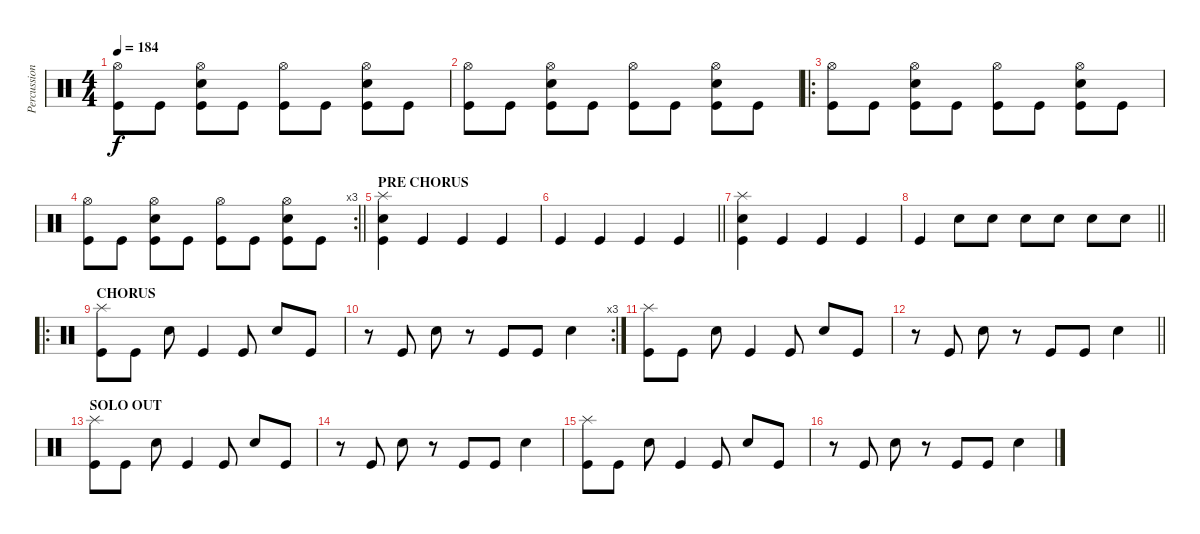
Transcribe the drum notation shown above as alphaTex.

\track ("Percussions" "Percussion") {instrument percussion}
\staff {score}
\articulation defaults
\ts (4 4)
\tempo 184
\clef neutral
\ks c
("Hi-Hat (open)" "Kick (hit)").8{dy f} "Kick (hit)".8 ("Hi-Hat (open)" "Electric Snare (hit)" "Kick (hit)").8 "Kick (hit)".8 ("Hi-Hat (open)" "Kick (hit)").8 "Kick (hit)".8 ("Hi-Hat (open)" "Electric Snare (hit)" "Kick (hit)").8 "Kick (hit)".8 |
("Hi-Hat (open)" "Kick (hit)").8 "Kick (hit)".8 ("Hi-Hat (open)" "Electric Snare (hit)" "Kick (hit)").8 "Kick (hit)".8 ("Hi-Hat (open)" "Kick (hit)").8 "Kick (hit)".8 ("Hi-Hat (open)" "Electric Snare (hit)" "Kick (hit)").8 "Kick (hit)".8 |
\ro
("Hi-Hat (open)" "Kick (hit)").8 "Kick (hit)".8 ("Hi-Hat (open)" "Electric Snare (hit)" "Kick (hit)").8 "Kick (hit)".8 ("Hi-Hat (open)" "Kick (hit)").8 "Kick (hit)".8 ("Hi-Hat (open)" "Electric Snare (hit)" "Kick (hit)").8 "Kick (hit)".8 |
\rc 3
\barLineRight lightlight
("Hi-Hat (open)" "Kick (hit)").8 "Kick (hit)".8 ("Hi-Hat (open)" "Electric Snare (hit)" "Kick (hit)").8 "Kick (hit)".8 ("Hi-Hat (open)" "Kick (hit)").8 "Kick (hit)".8 ("Hi-Hat (open)" "Electric Snare (hit)" "Kick (hit)").8 "Kick (hit)".8 |
\section ("" "PRE CHORUS")
("Electric Snare (hit)" "Splash (hit)" "Kick (hit)").4 "Kick (hit)".4 "Kick (hit)".4 "Kick (hit)".4 |
\barLineRight lightlight "Kick (hit)".4 "Kick (hit)".4 "Kick (hit)".4 "Kick (hit)".4
|
("Electric Snare (hit)" "Splash (hit)" "Kick (hit)").4 "Kick (hit)".4 "Kick (hit)".4 "Kick (hit)".4 |
\barLineRight lightlight "Kick (hit)".4 "Electric Snare (hit)".8 "Electric Snare (hit)".8 "Electric Snare (hit)".8 "Electric Snare (hit)".8 "Electric Snare (hit)".8 "Electric Snare (hit)".8
|
\ro
\section ("" "CHORUS")
("Splash (hit)" "Kick (hit)").8 "Kick (hit)".8 "Electric Snare (hit)".8 "Kick (hit)".4 "Kick (hit)".8 "Electric Snare (hit)".8 "Kick (hit)".8 |
\rc 3
r.8 "Kick (hit)".8 "Electric Snare (hit)".8 r.8 "Kick (hit)".8 "Kick (hit)".8 "Electric Snare (hit)".4 |
("Splash (hit)" "Kick (hit)").8 "Kick (hit)".8 "Electric Snare (hit)".8 "Kick (hit)".4 "Kick (hit)".8 "Electric Snare (hit)".8 "Kick (hit)".8 |
\barLineRight lightlight
r.8 "Kick (hit)".8 "Electric Snare (hit)".8 r.8 "Kick (hit)".8 "Kick (hit)".8 "Electric Snare (hit)".4 |
\section ("" "SOLO OUT")
("Splash (hit)" "Kick (hit)").8 "Kick (hit)".8 "Electric Snare (hit)".8 "Kick (hit)".4 "Kick (hit)".8 "Electric Snare (hit)".8 "Kick (hit)".8 |
r.8 "Kick (hit)".8 "Electric Snare (hit)".8 r.8 "Kick (hit)".8 "Kick (hit)".8 "Electric Snare (hit)".4 |
("Splash (hit)" "Kick (hit)").8 "Kick (hit)".8 "Electric Snare (hit)".8 "Kick (hit)".4 "Kick (hit)".8 "Electric Snare (hit)".8 "Kick (hit)".8 |
r.8 "Kick (hit)".8 "Electric Snare (hit)".8 r.8 "Kick (hit)".8 "Kick (hit)".8 "Electric Snare (hit)".4
